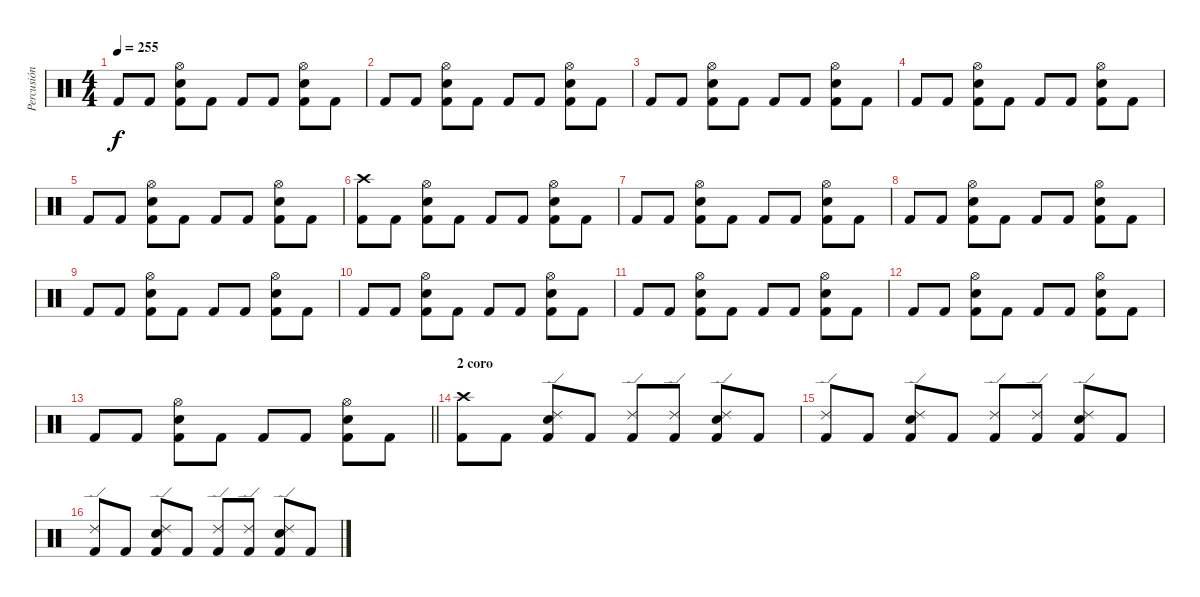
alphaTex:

\track ("Percusión" "Percusión") {instrument percussion}
\staff {score}
\articulation defaults
\ts (4 4)
\tempo 255
\clef neutral
\ks c "Kick (hit) 2".8{dy f} "Kick (hit) 2".8
("Kick (hit) 2" "Electric Snare (hit)" "Hi-Hat (open)").8 "Kick (hit) 2".8 "Kick (hit) 2".8 "Kick (hit) 2".8 ("Kick (hit) 2" "Electric Snare (hit)" "Hi-Hat (open)").8 "Kick (hit) 2".8 |
"Kick (hit) 2".8 "Kick (hit) 2".8 ("Kick (hit) 2" "Electric Snare (hit)" "Hi-Hat (open)").8 "Kick (hit) 2".8 "Kick (hit) 2".8 "Kick (hit) 2".8 ("Kick (hit) 2" "Electric Snare (hit)" "Hi-Hat (open)").8 "Kick (hit) 2".8 |
"Kick (hit) 2".8 "Kick (hit) 2".8 ("Kick (hit) 2" "Electric Snare (hit)" "Hi-Hat (open)").8 "Kick (hit) 2".8 "Kick (hit) 2".8 "Kick (hit) 2".8 ("Kick (hit) 2" "Electric Snare (hit)" "Hi-Hat (open)").8 "Kick (hit) 2".8 |
"Kick (hit) 2".8 "Kick (hit) 2".8 ("Kick (hit) 2" "Electric Snare (hit)" "Hi-Hat (open)").8 "Kick (hit) 2".8 "Kick (hit) 2".8 "Kick (hit) 2".8 ("Kick (hit) 2" "Electric Snare (hit)" "Hi-Hat (open)").8 "Kick (hit) 2".8 |
"Kick (hit) 2".8 "Kick (hit) 2".8 ("Kick (hit) 2" "Electric Snare (hit)" "Hi-Hat (open)").8 "Kick (hit) 2".8 "Kick (hit) 2".8 "Kick (hit) 2".8 ("Kick (hit) 2" "Electric Snare (hit)" "Hi-Hat (open)").8 "Kick (hit) 2".8 |
("Kick (hit) 2" "Crash high (hit)").8 "Kick (hit) 2".8 ("Kick (hit) 2" "Electric Snare (hit)" "Hi-Hat (open)").8 "Kick (hit) 2".8 "Kick (hit) 2".8 "Kick (hit) 2".8 ("Kick (hit) 2" "Electric Snare (hit)" "Hi-Hat (open)").8 "Kick (hit) 2".8 |
"Kick (hit) 2".8 "Kick (hit) 2".8 ("Kick (hit) 2" "Electric Snare (hit)" "Hi-Hat (open)").8 "Kick (hit) 2".8 "Kick (hit) 2".8 "Kick (hit) 2".8 ("Kick (hit) 2" "Electric Snare (hit)" "Hi-Hat (open)").8 "Kick (hit) 2".8 |
"Kick (hit) 2".8 "Kick (hit) 2".8 ("Kick (hit) 2" "Electric Snare (hit)" "Hi-Hat (open)").8 "Kick (hit) 2".8 "Kick (hit) 2".8 "Kick (hit) 2".8 ("Kick (hit) 2" "Electric Snare (hit)" "Hi-Hat (open)").8 "Kick (hit) 2".8 |
"Kick (hit) 2".8 "Kick (hit) 2".8 ("Kick (hit) 2" "Electric Snare (hit)" "Hi-Hat (open)").8 "Kick (hit) 2".8 "Kick (hit) 2".8 "Kick (hit) 2".8 ("Kick (hit) 2" "Electric Snare (hit)" "Hi-Hat (open)").8 "Kick (hit) 2".8 |
"Kick (hit) 2".8 "Kick (hit) 2".8 ("Kick (hit) 2" "Electric Snare (hit)" "Hi-Hat (open)").8 "Kick (hit) 2".8 "Kick (hit) 2".8 "Kick (hit) 2".8 ("Kick (hit) 2" "Electric Snare (hit)" "Hi-Hat (open)").8 "Kick (hit) 2".8 |
"Kick (hit) 2".8 "Kick (hit) 2".8 ("Kick (hit) 2" "Electric Snare (hit)" "Hi-Hat (open)").8 "Kick (hit) 2".8 "Kick (hit) 2".8 "Kick (hit) 2".8 ("Kick (hit) 2" "Electric Snare (hit)" "Hi-Hat (open)").8 "Kick (hit) 2".8 |
"Kick (hit) 2".8 "Kick (hit) 2".8 ("Kick (hit) 2" "Electric Snare (hit)" "Hi-Hat (open)").8 "Kick (hit) 2".8 "Kick (hit) 2".8 "Kick (hit) 2".8 ("Kick (hit) 2" "Electric Snare (hit)" "Hi-Hat (open)").8 "Kick (hit) 2".8 |
\barLineRight lightlight "Kick (hit) 2".8 "Kick (hit) 2".8
("Kick (hit) 2" "Electric Snare (hit)" "Hi-Hat (open)").8 "Kick (hit) 2".8 "Kick (hit) 2".8 "Kick (hit) 2".8 ("Kick (hit) 2" "Electric Snare (hit)" "Hi-Hat (open)").8 "Kick (hit) 2".8 |
\section ("" "2 coro")
("Kick (hit) 2" "Crash high (hit)").8 "Kick (hit) 2".8 ("Kick (hit) 2" "Electric Snare (hit)" "Ride (edge) 2").8 "Kick (hit) 2".8 ("Kick (hit) 2" "Ride (edge) 2").8 ("Kick (hit) 2" "Ride (edge) 2").8 ("Kick (hit) 2" "Electric Snare (hit)" "Ride (edge) 2").8 "Kick (hit) 2".8 |
("Kick (hit) 2" "Ride (edge) 2").8 "Kick (hit) 2".8 ("Kick (hit) 2" "Electric Snare (hit)" "Ride (edge) 2").8 "Kick (hit) 2".8 ("Kick (hit) 2" "Ride (edge) 2").8 ("Kick (hit) 2" "Ride (edge) 2").8 ("Kick (hit) 2" "Electric Snare (hit)" "Ride (edge) 2").8 "Kick (hit) 2".8 |
("Kick (hit) 2" "Ride (edge) 2").8 "Kick (hit) 2".8 ("Kick (hit) 2" "Electric Snare (hit)" "Ride (edge) 2").8 "Kick (hit) 2".8 ("Kick (hit) 2" "Ride (edge) 2").8 ("Kick (hit) 2" "Ride (edge) 2").8 ("Kick (hit) 2" "Electric Snare (hit)" "Ride (edge) 2").8 "Kick (hit) 2".8
